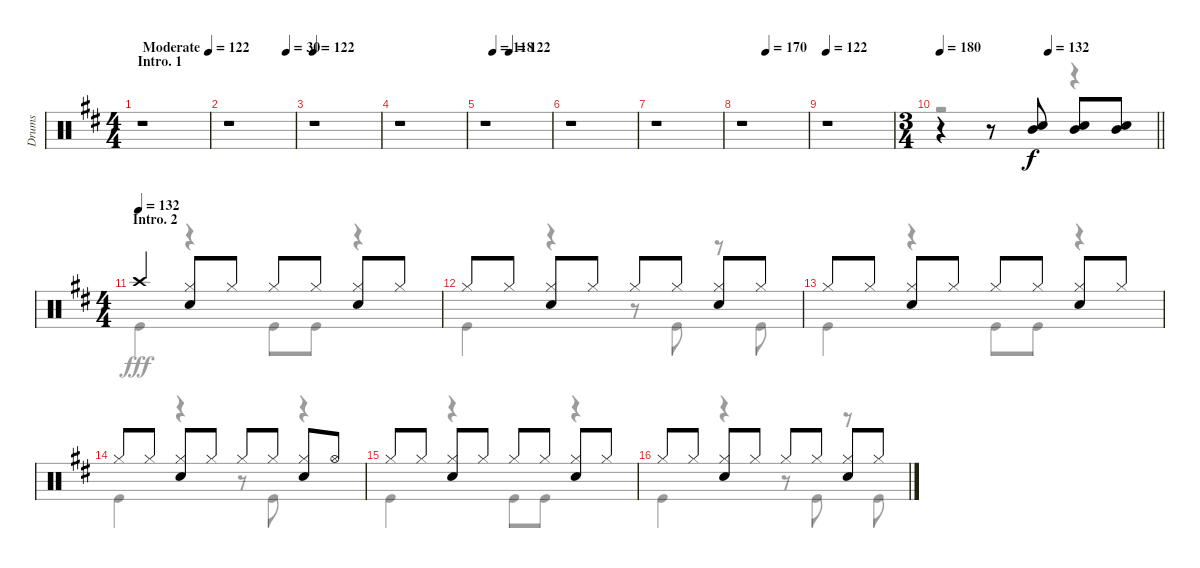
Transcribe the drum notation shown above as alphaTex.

\track ("Drums" "Drums") {instrument percussion}
\staff {score}
\articulation defaults
\voice
\ts (4 4)
\section ("" "Intro. 1")
\tempo (122 "Moderate")
\clef neutral
\ks d
r.1{dy f} |
\tempo (30 0.875)
r.1 |
\tempo 122
r.1 |
r.1 |
\tempo (118 0.125)
\tempo (122 0.375)
r.1 |
r.1 |
r.1 |
\tempo (170 0.375)
r.1 |
\tempo 132
\tempo 122
r.1 |
\ts (3 4)
\tempo 180
\tempo (132 0.5)
\barLineRight lightlight
r.4 r.8 ("Mid Tom (hit)" "Snare (hit) 2").8 ("Mid Tom (hit)" "Snare (hit) 2").8 ("Mid Tom (hit)" "Snare (hit) 2").8 |
\ts (4 4)
\section ("" "Intro. 2")
\tempo (132)
"Crash high (hit)".4 ("Hi-Hat (closed)" "Snare (hit) 2").8 "Hi-Hat (closed)".8 "Hi-Hat (closed)".8 "Hi-Hat (closed)".8 ("Hi-Hat (closed)" "Snare (hit) 2").8 "Hi-Hat (closed)".8 |
"Hi-Hat (closed)".8 "Hi-Hat (closed)".8 ("Hi-Hat (closed)" "Snare (hit) 2").8 "Hi-Hat (closed)".8 "Hi-Hat (closed)".8 "Hi-Hat (closed)".8 ("Hi-Hat (closed)" "Snare (hit) 2").8 "Hi-Hat (closed)".8 |
"Hi-Hat (closed)".8 "Hi-Hat (closed)".8 ("Hi-Hat (closed)" "Snare (hit) 2").8 "Hi-Hat (closed)".8 "Hi-Hat (closed)".8 "Hi-Hat (closed)".8 ("Hi-Hat (closed)" "Snare (hit) 2").8 "Hi-Hat (closed)".8 |
"Hi-Hat (closed)".8 "Hi-Hat (closed)".8 ("Hi-Hat (closed)" "Snare (hit) 2").8 "Hi-Hat (closed)".8 "Hi-Hat (closed)".8 "Hi-Hat (closed)".8 ("Hi-Hat (closed)" "Snare (hit) 2").8 "Hi-Hat (open)".8 |
"Hi-Hat (closed)".8 "Hi-Hat (closed)".8 ("Hi-Hat (closed)" "Snare (hit) 2").8 "Hi-Hat (closed)".8 "Hi-Hat (closed)".8 "Hi-Hat (closed)".8 ("Hi-Hat (closed)" "Snare (hit) 2").8 "Hi-Hat (closed)".8 |
"Hi-Hat (closed)".8 "Hi-Hat (closed)".8 ("Hi-Hat (closed)" "Snare (hit) 2").8 "Hi-Hat (closed)".8 "Hi-Hat (closed)".8 "Hi-Hat (closed)".8 ("Hi-Hat (closed)" "Snare (hit) 2").8 "Hi-Hat (closed)".8
\voice
\clef neutral
\ottava regular
\simile none
\ks d
r.1{dy fff} |
r.1 |
r.1 |
r.1 |
r.1 |
r.1 |
r.1 |
r.1 |
r.1 |
\barLineRight lightlight
r.2 r.4 |
"Kick (hit)".4 r.4 "Kick (hit)".8 "Kick (hit)".8 r.4 |
"Kick (hit)".4 r.4 r.8 "Kick (hit)".8 r.8 "Kick (hit)".8 |
"Kick (hit)".4 r.4 "Kick (hit)".8 "Kick (hit)".8 r.4 |
"Kick (hit)".4 r.4 r.8 "Kick (hit)".8 r.4 |
"Kick (hit)".4 r.4 "Kick (hit)".8 "Kick (hit)".8 r.4 |
"Kick (hit)".4 r.4 r.8 "Kick (hit)".8 r.8 "Kick (hit)".8
